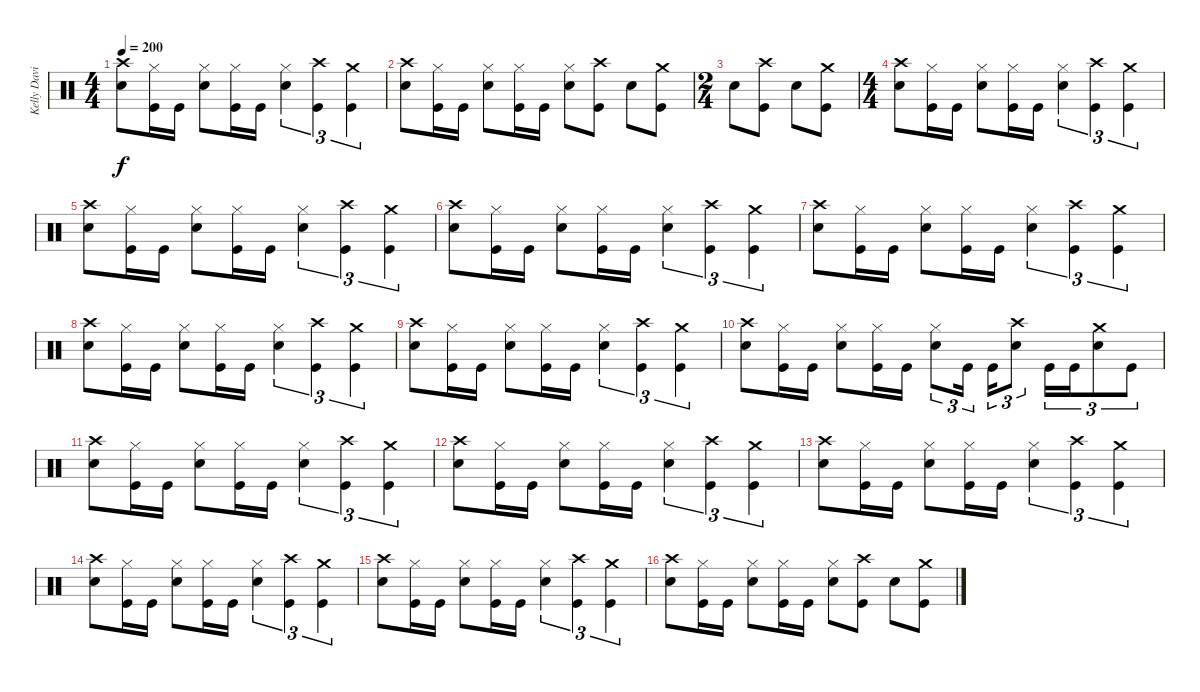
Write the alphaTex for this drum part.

\track ("Kelly David Smith" "Kelly Davi") {instrument percussion}
\staff {score}
\articulation defaults
\ts (4 4)
\tempo 200
\clef neutral
\ks c
("Crash high (hit)" "Snare (hit) 2").8{dy f} ("Hi-Hat (closed)" "Kick (hit)").16 "Kick (hit)".16 ("Hi-Hat (closed)" "Snare (hit) 2").8 ("Hi-Hat (closed)" "Kick (hit)").16 "Kick (hit)".16 ("Hi-Hat (closed)" "Snare (hit) 2").4{tu (3 2)} ("Crash high (hit)" "Kick (hit)").4{tu (3 2)} ("Crash medium (hit)" "Kick (hit)").4{tu (3 2)} |
("Crash high (hit)" "Snare (hit) 2").8 ("Hi-Hat (closed)" "Kick (hit)").16 "Kick (hit)".16 ("Hi-Hat (closed)" "Snare (hit) 2").8 ("Hi-Hat (closed)" "Kick (hit)").16 "Kick (hit)".16 ("Hi-Hat (closed)" "Snare (hit) 2").8 ("Crash high (hit)" "Kick (hit)").8 "Snare (hit) 2".8 ("Crash medium (hit)" "Kick (hit)").8 |
\ts (2 4)
"Snare (hit) 2".8 ("Crash high (hit)" "Kick (hit)").8 "Snare (hit) 2".8 ("Crash medium (hit)" "Kick (hit)").8 |
\ts (4 4)
("Crash high (hit)" "Snare (hit) 2").8 ("Hi-Hat (closed)" "Kick (hit)").16 "Kick (hit)".16 ("Hi-Hat (closed)" "Snare (hit) 2").8 ("Hi-Hat (closed)" "Kick (hit)").16 "Kick (hit)".16 ("Hi-Hat (closed)" "Snare (hit) 2").4{tu (3 2)} ("Crash high (hit)" "Kick (hit)").4{tu (3 2)} ("Crash medium (hit)" "Kick (hit)").4{tu (3 2)} |
("Crash high (hit)" "Snare (hit) 2").8 ("Hi-Hat (closed)" "Kick (hit)").16 "Kick (hit)".16 ("Hi-Hat (closed)" "Snare (hit) 2").8 ("Hi-Hat (closed)" "Kick (hit)").16 "Kick (hit)".16 ("Hi-Hat (closed)" "Snare (hit) 2").4{tu (3 2)} ("Crash high (hit)" "Kick (hit)").4{tu (3 2)} ("Crash medium (hit)" "Kick (hit)").4{tu (3 2)} |
("Crash high (hit)" "Snare (hit) 2").8 ("Hi-Hat (closed)" "Kick (hit)").16 "Kick (hit)".16 ("Hi-Hat (closed)" "Snare (hit) 2").8 ("Hi-Hat (closed)" "Kick (hit)").16 "Kick (hit)".16 ("Hi-Hat (closed)" "Snare (hit) 2").4{tu (3 2)} ("Crash high (hit)" "Kick (hit)").4{tu (3 2)} ("Crash medium (hit)" "Kick (hit)").4{tu (3 2)} |
("Crash high (hit)" "Snare (hit) 2").8 ("Hi-Hat (closed)" "Kick (hit)").16 "Kick (hit)".16 ("Hi-Hat (closed)" "Snare (hit) 2").8 ("Hi-Hat (closed)" "Kick (hit)").16 "Kick (hit)".16 ("Hi-Hat (closed)" "Snare (hit) 2").4{tu (3 2)} ("Crash high (hit)" "Kick (hit)").4{tu (3 2)} ("Crash medium (hit)" "Kick (hit)").4{tu (3 2)} |
("Crash high (hit)" "Snare (hit) 2").8 ("Hi-Hat (closed)" "Kick (hit)").16 "Kick (hit)".16 ("Hi-Hat (closed)" "Snare (hit) 2").8 ("Hi-Hat (closed)" "Kick (hit)").16 "Kick (hit)".16 ("Hi-Hat (closed)" "Snare (hit) 2").4{tu (3 2)} ("Crash high (hit)" "Kick (hit)").4{tu (3 2)} ("Crash medium (hit)" "Kick (hit)").4{tu (3 2)} |
("Crash high (hit)" "Snare (hit) 2").8 ("Hi-Hat (closed)" "Kick (hit)").16 "Kick (hit)".16 ("Hi-Hat (closed)" "Snare (hit) 2").8 ("Hi-Hat (closed)" "Kick (hit)").16 "Kick (hit)".16 ("Hi-Hat (closed)" "Snare (hit) 2").4{tu (3 2)} ("Crash high (hit)" "Kick (hit)").4{tu (3 2)} ("Crash medium (hit)" "Kick (hit)").4{tu (3 2)} |
("Crash high (hit)" "Snare (hit) 2").8 ("Hi-Hat (closed)" "Kick (hit)").16 "Kick (hit)".16 ("Hi-Hat (closed)" "Snare (hit) 2").8 ("Hi-Hat (closed)" "Kick (hit)").16 "Kick (hit)".16 ("Hi-Hat (closed)" "Snare (hit) 2").8{tu (3 2)} "Kick (hit)".16{tu (3 2)} "Kick (hit)".16{tu (3 2)} ("Crash high (hit)" "Snare (hit) 2").8{tu (3 2)} "Kick (hit)".16{tu (3 2)} "Kick (hit)".16{tu (3 2)} ("Crash medium (hit)" "Snare (hit) 2").8{tu (3 2)} "Kick (hit)".8{tu (3 2)} |
("Crash high (hit)" "Snare (hit) 2").8 ("Hi-Hat (closed)" "Kick (hit)").16 "Kick (hit)".16 ("Hi-Hat (closed)" "Snare (hit) 2").8 ("Hi-Hat (closed)" "Kick (hit)").16 "Kick (hit)".16 ("Hi-Hat (closed)" "Snare (hit) 2").4{tu (3 2)} ("Crash high (hit)" "Kick (hit)").4{tu (3 2)} ("Crash medium (hit)" "Kick (hit)").4{tu (3 2)} |
("Crash high (hit)" "Snare (hit) 2").8 ("Hi-Hat (closed)" "Kick (hit)").16 "Kick (hit)".16 ("Hi-Hat (closed)" "Snare (hit) 2").8 ("Hi-Hat (closed)" "Kick (hit)").16 "Kick (hit)".16 ("Hi-Hat (closed)" "Snare (hit) 2").4{tu (3 2)} ("Crash high (hit)" "Kick (hit)").4{tu (3 2)} ("Crash medium (hit)" "Kick (hit)").4{tu (3 2)} |
("Crash high (hit)" "Snare (hit) 2").8 ("Hi-Hat (closed)" "Kick (hit)").16 "Kick (hit)".16 ("Hi-Hat (closed)" "Snare (hit) 2").8 ("Hi-Hat (closed)" "Kick (hit)").16 "Kick (hit)".16 ("Hi-Hat (closed)" "Snare (hit) 2").4{tu (3 2)} ("Crash high (hit)" "Kick (hit)").4{tu (3 2)} ("Crash medium (hit)" "Kick (hit)").4{tu (3 2)} |
("Crash high (hit)" "Snare (hit) 2").8 ("Hi-Hat (closed)" "Kick (hit)").16 "Kick (hit)".16 ("Hi-Hat (closed)" "Snare (hit) 2").8 ("Hi-Hat (closed)" "Kick (hit)").16 "Kick (hit)".16 ("Hi-Hat (closed)" "Snare (hit) 2").4{tu (3 2)} ("Crash high (hit)" "Kick (hit)").4{tu (3 2)} ("Crash medium (hit)" "Kick (hit)").4{tu (3 2)} |
("Crash high (hit)" "Snare (hit) 2").8 ("Hi-Hat (closed)" "Kick (hit)").16 "Kick (hit)".16 ("Hi-Hat (closed)" "Snare (hit) 2").8 ("Hi-Hat (closed)" "Kick (hit)").16 "Kick (hit)".16 ("Hi-Hat (closed)" "Snare (hit) 2").4{tu (3 2)} ("Crash high (hit)" "Kick (hit)").4{tu (3 2)} ("Crash medium (hit)" "Kick (hit)").4{tu (3 2)} |
("Crash high (hit)" "Snare (hit) 2").8 ("Hi-Hat (closed)" "Kick (hit)").16 "Kick (hit)".16 ("Hi-Hat (closed)" "Snare (hit) 2").8 ("Hi-Hat (closed)" "Kick (hit)").16 "Kick (hit)".16 ("Hi-Hat (closed)" "Snare (hit) 2").8 ("Crash high (hit)" "Kick (hit)").8 "Snare (hit) 2".8 ("Crash medium (hit)" "Kick (hit)").8
